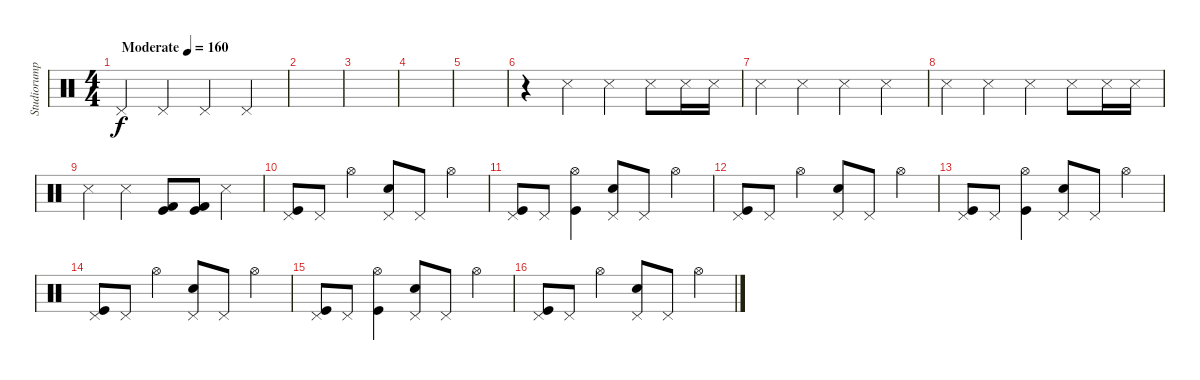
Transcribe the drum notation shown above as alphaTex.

\track ("Studiorumpali" "Studiorump") {instrument percussion}
\staff {score}
\articulation defaults
\ts (4 4)
\tempo (160 "Moderate")
\clef neutral
\ks c "Pedal Hi-Hat (hit)".4{dy f} "Pedal Hi-Hat (hit)".4 "Pedal Hi-Hat (hit)".4 "Pedal Hi-Hat (hit)".4
|
|
|
|
|
r.4{volume 7} "Snare (side stick) 3".4 "Snare (side stick) 3".4 "Snare (side stick) 3".8 "Snare (side stick) 3".16 "Snare (side stick) 3".16 |
"Snare (side stick) 3".4 "Snare (side stick) 3".4 "Snare (side stick) 3".4 "Snare (side stick) 3".4 |
"Snare (side stick) 3".4{volume 7} "Snare (side stick) 3".4 "Snare (side stick) 3".4 "Snare (side stick) 3".8 "Snare (side stick) 3".16 "Snare (side stick) 3".16 |
"Snare (side stick) 3".4 "Snare (side stick) 3".4 ("Kick (hit)" "Kick (hit) 2").8 ("Kick (hit)" "Kick (hit) 2").8 "Snare (side stick) 3".4 |
("Pedal Hi-Hat (hit)" "Kick (hit)").8 "Pedal Hi-Hat (hit)".8 "Hi-Hat (open)".4 ("Pedal Hi-Hat (hit)" "Snare (hit) 2").8 "Pedal Hi-Hat (hit)".8 "Hi-Hat (open)".4 |
("Pedal Hi-Hat (hit)" "Kick (hit)").8 "Pedal Hi-Hat (hit)".8 ("Hi-Hat (open)" "Kick (hit)").4 ("Pedal Hi-Hat (hit)" "Snare (hit) 2").8 "Pedal Hi-Hat (hit)".8 "Hi-Hat (open)".4 |
("Pedal Hi-Hat (hit)" "Kick (hit)").8 "Pedal Hi-Hat (hit)".8 "Hi-Hat (open)".4 ("Pedal Hi-Hat (hit)" "Snare (hit) 2").8 "Pedal Hi-Hat (hit)".8 "Hi-Hat (open)".4 |
("Pedal Hi-Hat (hit)" "Kick (hit)").8 "Pedal Hi-Hat (hit)".8 ("Hi-Hat (open)" "Kick (hit)").4 ("Pedal Hi-Hat (hit)" "Snare (hit) 2").8 "Pedal Hi-Hat (hit)".8 "Hi-Hat (open)".4 |
("Pedal Hi-Hat (hit)" "Kick (hit)").8 "Pedal Hi-Hat (hit)".8 "Hi-Hat (open)".4 ("Pedal Hi-Hat (hit)" "Snare (hit) 2").8 "Pedal Hi-Hat (hit)".8 "Hi-Hat (open)".4 |
("Pedal Hi-Hat (hit)" "Kick (hit)").8 "Pedal Hi-Hat (hit)".8 ("Hi-Hat (open)" "Kick (hit)").4 ("Pedal Hi-Hat (hit)" "Snare (hit) 2").8 "Pedal Hi-Hat (hit)".8 "Hi-Hat (open)".4 |
("Pedal Hi-Hat (hit)" "Kick (hit)").8 "Pedal Hi-Hat (hit)".8 "Hi-Hat (open)".4 ("Pedal Hi-Hat (hit)" "Snare (hit) 2").8 "Pedal Hi-Hat (hit)".8 "Hi-Hat (open)".4
